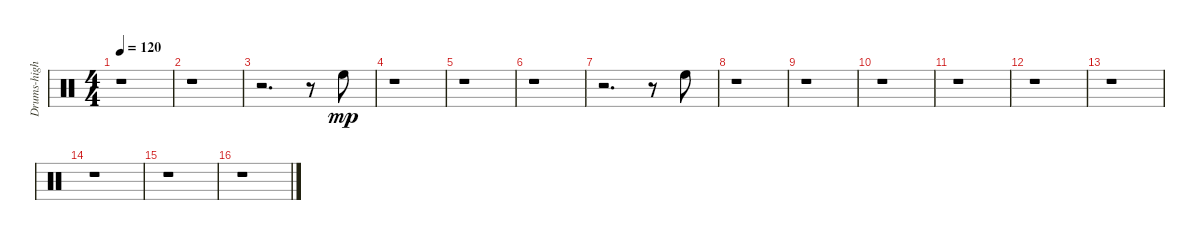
\track ("Drums-high tom 1" "Drums-high") {instrument percussion}
\staff {score}
\articulation defaults
\ts (4 4)
\tempo 120
\clef neutral
\ks c
r.1{dy mp} |
r.1 |
r.2{d} r.8 "High Floor Tom (hit)".8 |
r.1 |
r.1 |
r.1 |
r.2{d} r.8 "High Floor Tom (hit)".8 |
r.1 |
r.1 |
r.1 |
r.1 |
r.1 |
r.1 |
r.1 |
r.1 |
r.1
